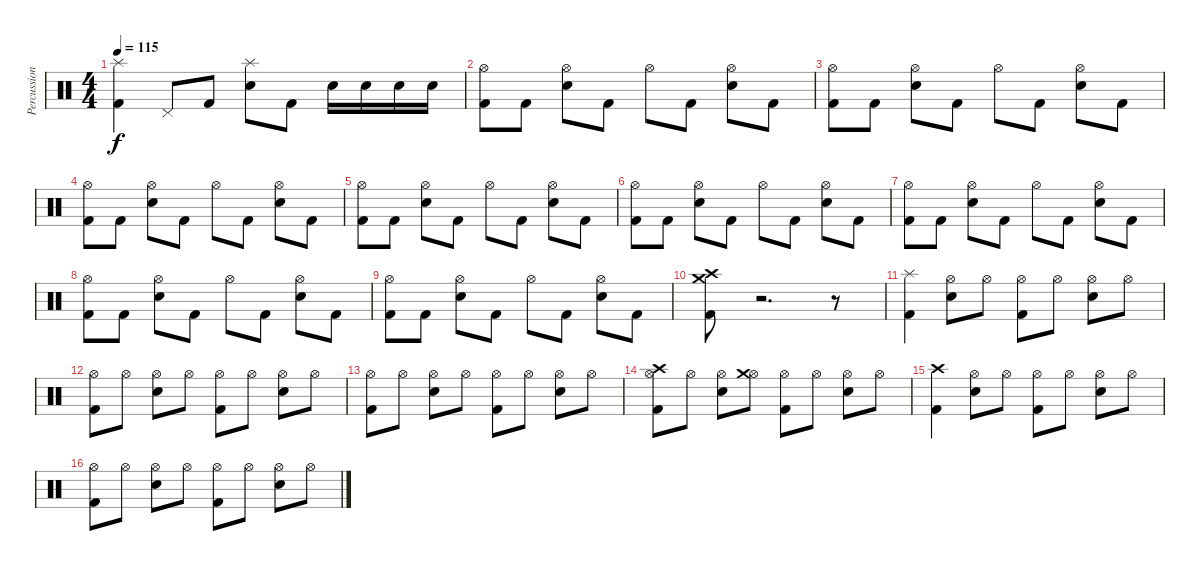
\track ("Percussion" "Percussion") {instrument percussion}
\staff {score}
\articulation defaults
\ts (4 4)
\tempo 115
\clef neutral
\ks c
("Kick (hit) 2" "Splash (hit)").4{dy f} "Pedal Hi-Hat (hit)".8 "Kick (hit) 2".8 ("Electric Snare (hit)" "Splash (hit)").8 "Kick (hit) 2".8 "Electric Snare (hit)".16 "Electric Snare (hit)".16 "Electric Snare (hit)".16 "Electric Snare (hit)".16 |
("Hi-Hat (open)" "Kick (hit) 2").8 "Kick (hit) 2".8 ("Hi-Hat (open)" "Electric Snare (hit)").8 "Kick (hit) 2".8 "Hi-Hat (open)".8 "Kick (hit) 2".8 ("Hi-Hat (open)" "Electric Snare (hit)").8 "Kick (hit) 2".8 |
("Hi-Hat (open)" "Kick (hit) 2").8 "Kick (hit) 2".8 ("Hi-Hat (open)" "Electric Snare (hit)").8 "Kick (hit) 2".8 "Hi-Hat (open)".8 "Kick (hit) 2".8 ("Hi-Hat (open)" "Electric Snare (hit)").8 "Kick (hit) 2".8 |
("Hi-Hat (open)" "Kick (hit) 2").8 "Kick (hit) 2".8 ("Hi-Hat (open)" "Electric Snare (hit)").8 "Kick (hit) 2".8 "Hi-Hat (open)".8 "Kick (hit) 2".8 ("Hi-Hat (open)" "Electric Snare (hit)").8 "Kick (hit) 2".8 |
("Hi-Hat (open)" "Kick (hit) 2").8 "Kick (hit) 2".8 ("Hi-Hat (open)" "Electric Snare (hit)").8 "Kick (hit) 2".8 "Hi-Hat (open)".8 "Kick (hit) 2".8 ("Hi-Hat (open)" "Electric Snare (hit)").8 "Kick (hit) 2".8 |
("Hi-Hat (open)" "Kick (hit) 2").8 "Kick (hit) 2".8 ("Hi-Hat (open)" "Electric Snare (hit)").8 "Kick (hit) 2".8 "Hi-Hat (open)".8 "Kick (hit) 2".8 ("Hi-Hat (open)" "Electric Snare (hit)").8 "Kick (hit) 2".8 |
("Hi-Hat (open)" "Kick (hit) 2").8 "Kick (hit) 2".8 ("Hi-Hat (open)" "Electric Snare (hit)").8 "Kick (hit) 2".8 "Hi-Hat (open)".8 "Kick (hit) 2".8 ("Hi-Hat (open)" "Electric Snare (hit)").8 "Kick (hit) 2".8 |
("Hi-Hat (open)" "Kick (hit) 2").8 "Kick (hit) 2".8 ("Hi-Hat (open)" "Electric Snare (hit)").8 "Kick (hit) 2".8 "Hi-Hat (open)".8 "Kick (hit) 2".8 ("Hi-Hat (open)" "Electric Snare (hit)").8 "Kick (hit) 2".8 |
("Hi-Hat (open)" "Kick (hit) 2").8 "Kick (hit) 2".8 ("Hi-Hat (open)" "Electric Snare (hit)").8 "Kick (hit) 2".8 "Hi-Hat (open)".8 "Kick (hit) 2".8 ("Hi-Hat (open)" "Electric Snare (hit)").8 "Kick (hit) 2".8 |
("Crash medium (hit)" "Kick (hit) 2" "Crash high (hit)").8 r.2{d} r.8 |
("Kick (hit) 2" "Splash (hit)").4 ("Electric Snare (hit)" "Hi-Hat (open)").8 "Hi-Hat (open)".8 ("Kick (hit) 2" "Hi-Hat (open)").8 "Hi-Hat (open)".8 ("Electric Snare (hit)" "Hi-Hat (open)").8 "Hi-Hat (open)".8 |
("Kick (hit) 2" "Hi-Hat (open)").8 "Hi-Hat (open)".8 ("Electric Snare (hit)" "Hi-Hat (open)").8 "Hi-Hat (open)".8 ("Kick (hit) 2" "Hi-Hat (open)").8 "Hi-Hat (open)".8 ("Electric Snare (hit)" "Hi-Hat (open)").8 "Hi-Hat (open)".8 |
("Kick (hit) 2" "Hi-Hat (open)").8 "Hi-Hat (open)".8 ("Electric Snare (hit)" "Hi-Hat (open)").8 "Hi-Hat (open)".8 ("Kick (hit) 2" "Hi-Hat (open)").8 "Hi-Hat (open)".8 ("Electric Snare (hit)" "Hi-Hat (open)").8 "Hi-Hat (open)".8 |
("Kick (hit) 2" "Hi-Hat (open)" "Crash high (hit)").8 "Hi-Hat (open)".8 ("Electric Snare (hit)" "Hi-Hat (open)").8 ("Hi-Hat (open)" "Crash medium (hit)").8 ("Kick (hit) 2" "Hi-Hat (open)").8 "Hi-Hat (open)".8 ("Electric Snare (hit)" "Hi-Hat (open)").8 "Hi-Hat (open)".8 |
("Kick (hit) 2" "Crash high (hit)").4 ("Electric Snare (hit)" "Hi-Hat (open)").8 "Hi-Hat (open)".8 ("Kick (hit) 2" "Hi-Hat (open)").8 "Hi-Hat (open)".8 ("Electric Snare (hit)" "Hi-Hat (open)").8 "Hi-Hat (open)".8 |
("Kick (hit) 2" "Hi-Hat (open)").8 "Hi-Hat (open)".8 ("Electric Snare (hit)" "Hi-Hat (open)").8 "Hi-Hat (open)".8 ("Kick (hit) 2" "Hi-Hat (open)").8 "Hi-Hat (open)".8 ("Electric Snare (hit)" "Hi-Hat (open)").8 "Hi-Hat (open)".8
